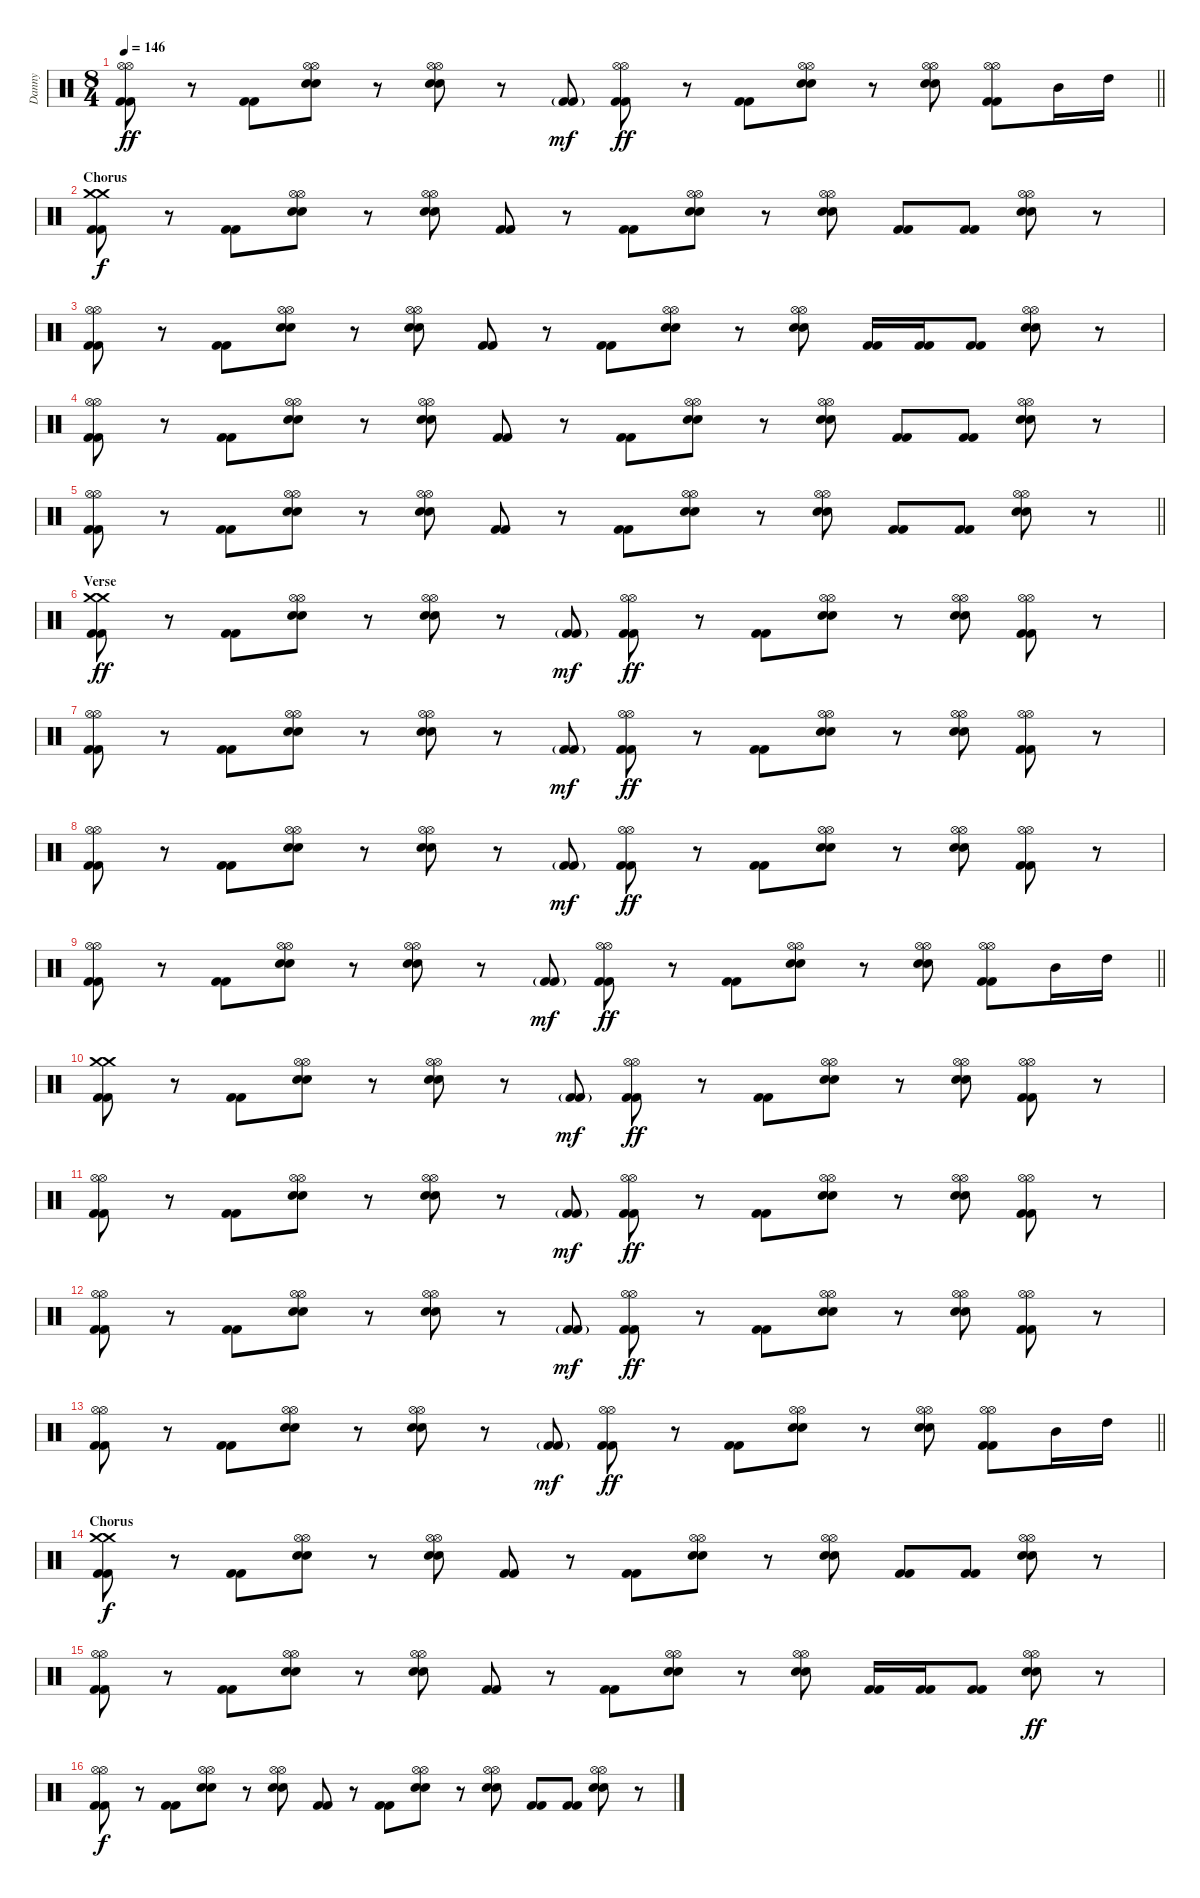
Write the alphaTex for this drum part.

\track ("Danny" "Danny") {instrument percussion}
\staff {score}
\articulation defaults
\ts (8 4)
\tempo 146
\clef neutral
\barLineRight lightlight
\ks c
("Hi-Hat (open)" "Kick (hit) 2" "Kick (hit) 2" "Hi-Hat (open)").8{dy ff} r.8 ("Kick (hit) 2" "Kick (hit) 2").8 ("Hi-Hat (open)" "Snare (hit) 2" "Snare (hit) 2" "Hi-Hat (open)").8 r.8 ("Hi-Hat (open)" "Snare (hit) 2" "Snare (hit) 2" "Hi-Hat (open)").8 r.8 ("Kick (hit) 2"{g} "Kick (hit) 2"{g}).8{dy mf} ("Hi-Hat (open)" "Kick (hit) 2" "Kick (hit) 2" "Hi-Hat (open)").8{dy ff} r.8 ("Kick (hit) 2" "Kick (hit) 2").8 ("Hi-Hat (open)" "Snare (hit) 2" "Snare (hit) 2" "Hi-Hat (open)").8 r.8 ("Hi-Hat (open)" "Snare (hit) 2" "Snare (hit) 2" "Hi-Hat (open)").8 ("Hi-Hat (open)" "Kick (hit) 2" "Kick (hit) 2" "Hi-Hat (open)").8 "Mid Tom (hit)".16 "High Tom (hit)".16 |
\section ("" "Chorus")
("Crash medium (hit)" "Kick (hit) 2" "Kick (hit) 2" "Crash medium (hit)").8{dy f} r.8 ("Kick (hit) 2" "Kick (hit) 2").8 ("Hi-Hat (open)" "Snare (hit) 2" "Snare (hit) 2" "Hi-Hat (open)").8 r.8 ("Hi-Hat (open)" "Snare (hit) 2" "Snare (hit) 2" "Hi-Hat (open)").8 ("Kick (hit) 2" "Kick (hit) 2").8 r.8 ("Kick (hit) 2" "Kick (hit) 2").8 ("Hi-Hat (open)" "Snare (hit) 2" "Snare (hit) 2" "Hi-Hat (open)").8 r.8 ("Hi-Hat (open)" "Snare (hit) 2" "Snare (hit) 2" "Hi-Hat (open)").8 ("Kick (hit) 2" "Kick (hit) 2").8 ("Kick (hit) 2" "Kick (hit) 2").8 ("Hi-Hat (open)" "Snare (hit) 2" "Snare (hit) 2" "Hi-Hat (open)").8 r.8 |
("Hi-Hat (open)" "Kick (hit) 2" "Kick (hit) 2" "Hi-Hat (open)").8 r.8 ("Kick (hit) 2" "Kick (hit) 2").8 ("Hi-Hat (open)" "Snare (hit) 2" "Snare (hit) 2" "Hi-Hat (open)").8 r.8 ("Hi-Hat (open)" "Snare (hit) 2" "Snare (hit) 2" "Hi-Hat (open)").8 ("Kick (hit) 2" "Kick (hit) 2").8 r.8 ("Kick (hit) 2" "Kick (hit) 2").8 ("Hi-Hat (open)" "Snare (hit) 2" "Snare (hit) 2" "Hi-Hat (open)").8 r.8 ("Hi-Hat (open)" "Snare (hit) 2" "Snare (hit) 2" "Hi-Hat (open)").8 ("Kick (hit) 2" "Kick (hit) 2").16 ("Kick (hit) 2" "Kick (hit) 2").16 ("Kick (hit) 2" "Kick (hit) 2").8 ("Hi-Hat (open)" "Snare (hit) 2" "Snare (hit) 2" "Hi-Hat (open)").8 r.8 |
("Hi-Hat (open)" "Kick (hit) 2" "Kick (hit) 2" "Hi-Hat (open)").8 r.8 ("Kick (hit) 2" "Kick (hit) 2").8 ("Hi-Hat (open)" "Snare (hit) 2" "Snare (hit) 2" "Hi-Hat (open)").8 r.8 ("Hi-Hat (open)" "Snare (hit) 2" "Snare (hit) 2" "Hi-Hat (open)").8 ("Kick (hit) 2" "Kick (hit) 2").8 r.8 ("Kick (hit) 2" "Kick (hit) 2").8 ("Hi-Hat (open)" "Snare (hit) 2" "Snare (hit) 2" "Hi-Hat (open)").8 r.8 ("Hi-Hat (open)" "Snare (hit) 2" "Snare (hit) 2" "Hi-Hat (open)").8 ("Kick (hit) 2" "Kick (hit) 2").8 ("Kick (hit) 2" "Kick (hit) 2").8 ("Hi-Hat (open)" "Snare (hit) 2" "Snare (hit) 2" "Hi-Hat (open)").8 r.8 |
\barLineRight lightlight
("Hi-Hat (open)" "Kick (hit) 2" "Kick (hit) 2" "Hi-Hat (open)").8 r.8 ("Kick (hit) 2" "Kick (hit) 2").8 ("Hi-Hat (open)" "Snare (hit) 2" "Snare (hit) 2" "Hi-Hat (open)").8 r.8 ("Hi-Hat (open)" "Snare (hit) 2" "Snare (hit) 2" "Hi-Hat (open)").8 ("Kick (hit) 2" "Kick (hit) 2").8 r.8 ("Kick (hit) 2" "Kick (hit) 2").8 ("Hi-Hat (open)" "Snare (hit) 2" "Snare (hit) 2" "Hi-Hat (open)").8 r.8 ("Hi-Hat (open)" "Snare (hit) 2" "Snare (hit) 2" "Hi-Hat (open)").8 ("Kick (hit) 2" "Kick (hit) 2").8 ("Kick (hit) 2" "Kick (hit) 2").8 ("Hi-Hat (open)" "Snare (hit) 2" "Snare (hit) 2" "Hi-Hat (open)").8 r.8 |
\section ("" "Verse")
("Crash medium (hit)" "Kick (hit) 2" "Kick (hit) 2" "Crash medium (hit)").8{dy ff} r.8 ("Kick (hit) 2" "Kick (hit) 2").8 ("Hi-Hat (open)" "Snare (hit) 2" "Snare (hit) 2" "Hi-Hat (open)").8 r.8 ("Hi-Hat (open)" "Snare (hit) 2" "Snare (hit) 2" "Hi-Hat (open)").8 r.8 ("Kick (hit) 2"{g} "Kick (hit) 2"{g}).8{dy mf} ("Hi-Hat (open)" "Kick (hit) 2" "Kick (hit) 2" "Hi-Hat (open)").8{dy ff} r.8 ("Kick (hit) 2" "Kick (hit) 2").8 ("Hi-Hat (open)" "Snare (hit) 2" "Snare (hit) 2" "Hi-Hat (open)").8 r.8 ("Hi-Hat (open)" "Snare (hit) 2" "Snare (hit) 2" "Hi-Hat (open)").8 ("Hi-Hat (open)" "Kick (hit) 2" "Kick (hit) 2" "Hi-Hat (open)").8 r.8 |
("Hi-Hat (open)" "Kick (hit) 2" "Kick (hit) 2" "Hi-Hat (open)").8 r.8 ("Kick (hit) 2" "Kick (hit) 2").8 ("Hi-Hat (open)" "Snare (hit) 2" "Snare (hit) 2" "Hi-Hat (open)").8 r.8 ("Hi-Hat (open)" "Snare (hit) 2" "Snare (hit) 2" "Hi-Hat (open)").8 r.8 ("Kick (hit) 2"{g} "Kick (hit) 2"{g}).8{dy mf} ("Hi-Hat (open)" "Kick (hit) 2" "Kick (hit) 2" "Hi-Hat (open)").8{dy ff} r.8 ("Kick (hit) 2" "Kick (hit) 2").8 ("Hi-Hat (open)" "Snare (hit) 2" "Snare (hit) 2" "Hi-Hat (open)").8 r.8 ("Hi-Hat (open)" "Snare (hit) 2" "Snare (hit) 2" "Hi-Hat (open)").8 ("Hi-Hat (open)" "Kick (hit) 2" "Kick (hit) 2" "Hi-Hat (open)").8 r.8 |
("Hi-Hat (open)" "Kick (hit) 2" "Kick (hit) 2" "Hi-Hat (open)").8 r.8 ("Kick (hit) 2" "Kick (hit) 2").8 ("Hi-Hat (open)" "Snare (hit) 2" "Snare (hit) 2" "Hi-Hat (open)").8 r.8 ("Hi-Hat (open)" "Snare (hit) 2" "Snare (hit) 2" "Hi-Hat (open)").8 r.8 ("Kick (hit) 2"{g} "Kick (hit) 2"{g}).8{dy mf} ("Hi-Hat (open)" "Kick (hit) 2" "Kick (hit) 2" "Hi-Hat (open)").8{dy ff} r.8 ("Kick (hit) 2" "Kick (hit) 2").8 ("Hi-Hat (open)" "Snare (hit) 2" "Snare (hit) 2" "Hi-Hat (open)").8 r.8 ("Hi-Hat (open)" "Snare (hit) 2" "Snare (hit) 2" "Hi-Hat (open)").8 ("Hi-Hat (open)" "Kick (hit) 2" "Kick (hit) 2" "Hi-Hat (open)").8 r.8 |
\barLineRight lightlight
("Hi-Hat (open)" "Kick (hit) 2" "Kick (hit) 2" "Hi-Hat (open)").8 r.8 ("Kick (hit) 2" "Kick (hit) 2").8 ("Hi-Hat (open)" "Snare (hit) 2" "Snare (hit) 2" "Hi-Hat (open)").8 r.8 ("Hi-Hat (open)" "Snare (hit) 2" "Snare (hit) 2" "Hi-Hat (open)").8 r.8 ("Kick (hit) 2"{g} "Kick (hit) 2"{g}).8{dy mf} ("Hi-Hat (open)" "Kick (hit) 2" "Kick (hit) 2" "Hi-Hat (open)").8{dy ff} r.8 ("Kick (hit) 2" "Kick (hit) 2").8 ("Hi-Hat (open)" "Snare (hit) 2" "Snare (hit) 2" "Hi-Hat (open)").8 r.8 ("Hi-Hat (open)" "Snare (hit) 2" "Snare (hit) 2" "Hi-Hat (open)").8 ("Hi-Hat (open)" "Kick (hit) 2" "Kick (hit) 2" "Hi-Hat (open)").8 "Mid Tom (hit)".16 "High Tom (hit)".16 |
("Crash medium (hit)" "Kick (hit) 2" "Kick (hit) 2" "Crash medium (hit)").8 r.8 ("Kick (hit) 2" "Kick (hit) 2").8 ("Hi-Hat (open)" "Snare (hit) 2" "Snare (hit) 2" "Hi-Hat (open)").8 r.8 ("Hi-Hat (open)" "Snare (hit) 2" "Snare (hit) 2" "Hi-Hat (open)").8 r.8 ("Kick (hit) 2"{g} "Kick (hit) 2"{g}).8{dy mf} ("Hi-Hat (open)" "Kick (hit) 2" "Kick (hit) 2" "Hi-Hat (open)").8{dy ff} r.8 ("Kick (hit) 2" "Kick (hit) 2").8 ("Hi-Hat (open)" "Snare (hit) 2" "Snare (hit) 2" "Hi-Hat (open)").8 r.8 ("Hi-Hat (open)" "Snare (hit) 2" "Snare (hit) 2" "Hi-Hat (open)").8 ("Hi-Hat (open)" "Kick (hit) 2" "Kick (hit) 2" "Hi-Hat (open)").8 r.8 |
("Hi-Hat (open)" "Kick (hit) 2" "Kick (hit) 2" "Hi-Hat (open)").8 r.8 ("Kick (hit) 2" "Kick (hit) 2").8 ("Hi-Hat (open)" "Snare (hit) 2" "Snare (hit) 2" "Hi-Hat (open)").8 r.8 ("Hi-Hat (open)" "Snare (hit) 2" "Snare (hit) 2" "Hi-Hat (open)").8 r.8 ("Kick (hit) 2"{g} "Kick (hit) 2"{g}).8{dy mf} ("Hi-Hat (open)" "Kick (hit) 2" "Kick (hit) 2" "Hi-Hat (open)").8{dy ff} r.8 ("Kick (hit) 2" "Kick (hit) 2").8 ("Hi-Hat (open)" "Snare (hit) 2" "Snare (hit) 2" "Hi-Hat (open)").8 r.8 ("Hi-Hat (open)" "Snare (hit) 2" "Snare (hit) 2" "Hi-Hat (open)").8 ("Hi-Hat (open)" "Kick (hit) 2" "Kick (hit) 2" "Hi-Hat (open)").8 r.8 |
("Hi-Hat (open)" "Kick (hit) 2" "Kick (hit) 2" "Hi-Hat (open)").8 r.8 ("Kick (hit) 2" "Kick (hit) 2").8 ("Hi-Hat (open)" "Snare (hit) 2" "Snare (hit) 2" "Hi-Hat (open)").8 r.8 ("Hi-Hat (open)" "Snare (hit) 2" "Snare (hit) 2" "Hi-Hat (open)").8 r.8 ("Kick (hit) 2"{g} "Kick (hit) 2"{g}).8{dy mf} ("Hi-Hat (open)" "Kick (hit) 2" "Kick (hit) 2" "Hi-Hat (open)").8{dy ff} r.8 ("Kick (hit) 2" "Kick (hit) 2").8 ("Hi-Hat (open)" "Snare (hit) 2" "Snare (hit) 2" "Hi-Hat (open)").8 r.8 ("Hi-Hat (open)" "Snare (hit) 2" "Snare (hit) 2" "Hi-Hat (open)").8 ("Hi-Hat (open)" "Kick (hit) 2" "Kick (hit) 2" "Hi-Hat (open)").8 r.8 |
\barLineRight lightlight
("Hi-Hat (open)" "Kick (hit) 2" "Kick (hit) 2" "Hi-Hat (open)").8 r.8 ("Kick (hit) 2" "Kick (hit) 2").8 ("Hi-Hat (open)" "Snare (hit) 2" "Snare (hit) 2" "Hi-Hat (open)").8 r.8 ("Hi-Hat (open)" "Snare (hit) 2" "Snare (hit) 2" "Hi-Hat (open)").8 r.8 ("Kick (hit) 2"{g} "Kick (hit) 2"{g}).8{dy mf} ("Hi-Hat (open)" "Kick (hit) 2" "Kick (hit) 2" "Hi-Hat (open)").8{dy ff} r.8 ("Kick (hit) 2" "Kick (hit) 2").8 ("Hi-Hat (open)" "Snare (hit) 2" "Snare (hit) 2" "Hi-Hat (open)").8 r.8 ("Hi-Hat (open)" "Snare (hit) 2" "Snare (hit) 2" "Hi-Hat (open)").8 ("Hi-Hat (open)" "Kick (hit) 2" "Kick (hit) 2" "Hi-Hat (open)").8 "Mid Tom (hit)".16 "High Tom (hit)".16 |
\section ("" "Chorus")
("Crash medium (hit)" "Kick (hit) 2" "Kick (hit) 2" "Crash medium (hit)").8{dy f} r.8 ("Kick (hit) 2" "Kick (hit) 2").8 ("Hi-Hat (open)" "Snare (hit) 2" "Snare (hit) 2" "Hi-Hat (open)").8 r.8 ("Hi-Hat (open)" "Snare (hit) 2" "Snare (hit) 2" "Hi-Hat (open)").8 ("Kick (hit) 2" "Kick (hit) 2").8 r.8 ("Kick (hit) 2" "Kick (hit) 2").8 ("Hi-Hat (open)" "Snare (hit) 2" "Snare (hit) 2" "Hi-Hat (open)").8 r.8 ("Hi-Hat (open)" "Snare (hit) 2" "Snare (hit) 2" "Hi-Hat (open)").8 ("Kick (hit) 2" "Kick (hit) 2").8 ("Kick (hit) 2" "Kick (hit) 2").8 ("Hi-Hat (open)" "Snare (hit) 2" "Snare (hit) 2" "Hi-Hat (open)").8 r.8 |
("Hi-Hat (open)" "Kick (hit) 2" "Kick (hit) 2" "Hi-Hat (open)").8 r.8 ("Kick (hit) 2" "Kick (hit) 2").8 ("Hi-Hat (open)" "Snare (hit) 2" "Snare (hit) 2" "Hi-Hat (open)").8 r.8 ("Hi-Hat (open)" "Snare (hit) 2" "Snare (hit) 2" "Hi-Hat (open)").8 ("Kick (hit) 2" "Kick (hit) 2").8 r.8 ("Kick (hit) 2" "Kick (hit) 2").8 ("Hi-Hat (open)" "Snare (hit) 2" "Snare (hit) 2" "Hi-Hat (open)").8 r.8 ("Hi-Hat (open)" "Snare (hit) 2" "Snare (hit) 2" "Hi-Hat (open)").8 ("Kick (hit) 2" "Kick (hit) 2").16 ("Kick (hit) 2" "Kick (hit) 2").16 ("Kick (hit) 2" "Kick (hit) 2").8 ("Hi-Hat (open)" "Snare (hit) 2" "Snare (hit) 2" "Hi-Hat (open)").8{dy ff} r.8 |
("Hi-Hat (open)" "Kick (hit) 2" "Kick (hit) 2" "Hi-Hat (open)").8{dy f} r.8 ("Kick (hit) 2" "Kick (hit) 2").8 ("Hi-Hat (open)" "Snare (hit) 2" "Snare (hit) 2" "Hi-Hat (open)").8 r.8 ("Hi-Hat (open)" "Snare (hit) 2" "Snare (hit) 2" "Hi-Hat (open)").8 ("Kick (hit) 2" "Kick (hit) 2").8 r.8 ("Kick (hit) 2" "Kick (hit) 2").8 ("Hi-Hat (open)" "Snare (hit) 2" "Snare (hit) 2" "Hi-Hat (open)").8 r.8 ("Hi-Hat (open)" "Snare (hit) 2" "Snare (hit) 2" "Hi-Hat (open)").8 ("Kick (hit) 2" "Kick (hit) 2").8 ("Kick (hit) 2" "Kick (hit) 2").8 ("Hi-Hat (open)" "Snare (hit) 2" "Snare (hit) 2" "Hi-Hat (open)").8 r.8
